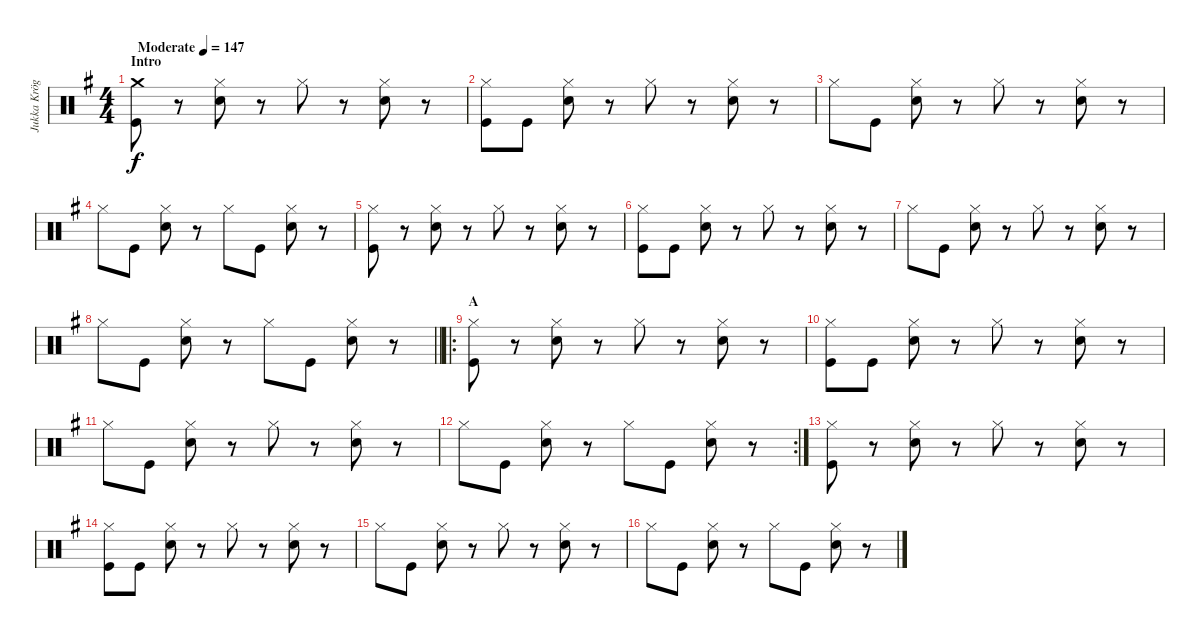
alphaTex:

\track ("Jukka Kröger" "Jukka Krög") {instrument percussion}
\staff {score}
\articulation defaults
\ts (4 4)
\section ("" "Intro")
\tempo (147 "Moderate")
\clef neutral
\ks eminor
("Crash medium (hit)" "Kick (hit)").8{dy f} r.8 ("Hi-Hat (closed)" "Snare (hit) 2").8 r.8 "Hi-Hat (closed)".8 r.8 ("Hi-Hat (closed)" "Snare (hit) 2").8 r.8 |
("Hi-Hat (closed)" "Kick (hit)").8 "Kick (hit)".8 ("Hi-Hat (closed)" "Snare (hit) 2").8 r.8 "Hi-Hat (closed)".8 r.8 ("Hi-Hat (closed)" "Snare (hit) 2").8 r.8 |
"Hi-Hat (closed)".8 "Kick (hit)".8 ("Hi-Hat (closed)" "Snare (hit) 2").8 r.8 "Hi-Hat (closed)".8 r.8 ("Hi-Hat (closed)" "Snare (hit) 2").8 r.8 |
"Hi-Hat (closed)".8 "Kick (hit)".8 ("Hi-Hat (closed)" "Snare (hit) 2").8 r.8 "Hi-Hat (closed)".8 "Kick (hit)".8 ("Hi-Hat (closed)" "Snare (hit) 2").8 r.8 |
("Hi-Hat (closed)" "Kick (hit)").8 r.8 ("Hi-Hat (closed)" "Snare (hit) 2").8 r.8 "Hi-Hat (closed)".8 r.8 ("Hi-Hat (closed)" "Snare (hit) 2").8 r.8 |
("Hi-Hat (closed)" "Kick (hit)").8 "Kick (hit)".8 ("Hi-Hat (closed)" "Snare (hit) 2").8 r.8 "Hi-Hat (closed)".8 r.8 ("Hi-Hat (closed)" "Snare (hit) 2").8 r.8 |
"Hi-Hat (closed)".8 "Kick (hit)".8 ("Hi-Hat (closed)" "Snare (hit) 2").8 r.8 "Hi-Hat (closed)".8 r.8 ("Hi-Hat (closed)" "Snare (hit) 2").8 r.8 |
\barLineRight lightlight "Hi-Hat (closed)".8 "Kick (hit)".8
("Hi-Hat (closed)" "Snare (hit) 2").8 r.8 "Hi-Hat (closed)".8 "Kick (hit)".8 ("Hi-Hat (closed)" "Snare (hit) 2").8 r.8 |
\ro
\section ("" "A")
("Hi-Hat (closed)" "Kick (hit)").8 r.8 ("Hi-Hat (closed)" "Snare (hit) 2").8 r.8 "Hi-Hat (closed)".8 r.8 ("Hi-Hat (closed)" "Snare (hit) 2").8 r.8 |
("Hi-Hat (closed)" "Kick (hit)").8 "Kick (hit)".8 ("Hi-Hat (closed)" "Snare (hit) 2").8 r.8 "Hi-Hat (closed)".8 r.8 ("Hi-Hat (closed)" "Snare (hit) 2").8 r.8 |
"Hi-Hat (closed)".8 "Kick (hit)".8 ("Hi-Hat (closed)" "Snare (hit) 2").8 r.8 "Hi-Hat (closed)".8 r.8 ("Hi-Hat (closed)" "Snare (hit) 2").8 r.8 |
\rc 2 "Hi-Hat (closed)".8 "Kick (hit)".8
("Hi-Hat (closed)" "Snare (hit) 2").8 r.8 "Hi-Hat (closed)".8 "Kick (hit)".8 ("Hi-Hat (closed)" "Snare (hit) 2").8 r.8 |
("Hi-Hat (closed)" "Kick (hit)").8 r.8 ("Hi-Hat (closed)" "Snare (hit) 2").8 r.8 "Hi-Hat (closed)".8 r.8 ("Hi-Hat (closed)" "Snare (hit) 2").8 r.8 |
("Hi-Hat (closed)" "Kick (hit)").8 "Kick (hit)".8 ("Hi-Hat (closed)" "Snare (hit) 2").8 r.8 "Hi-Hat (closed)".8 r.8 ("Hi-Hat (closed)" "Snare (hit) 2").8 r.8 |
"Hi-Hat (closed)".8 "Kick (hit)".8 ("Hi-Hat (closed)" "Snare (hit) 2").8 r.8 "Hi-Hat (closed)".8 r.8 ("Hi-Hat (closed)" "Snare (hit) 2").8 r.8 |
"Hi-Hat (closed)".8 "Kick (hit)".8 ("Hi-Hat (closed)" "Snare (hit) 2").8 r.8 "Hi-Hat (closed)".8 "Kick (hit)".8 ("Hi-Hat (closed)" "Snare (hit) 2").8 r.8
